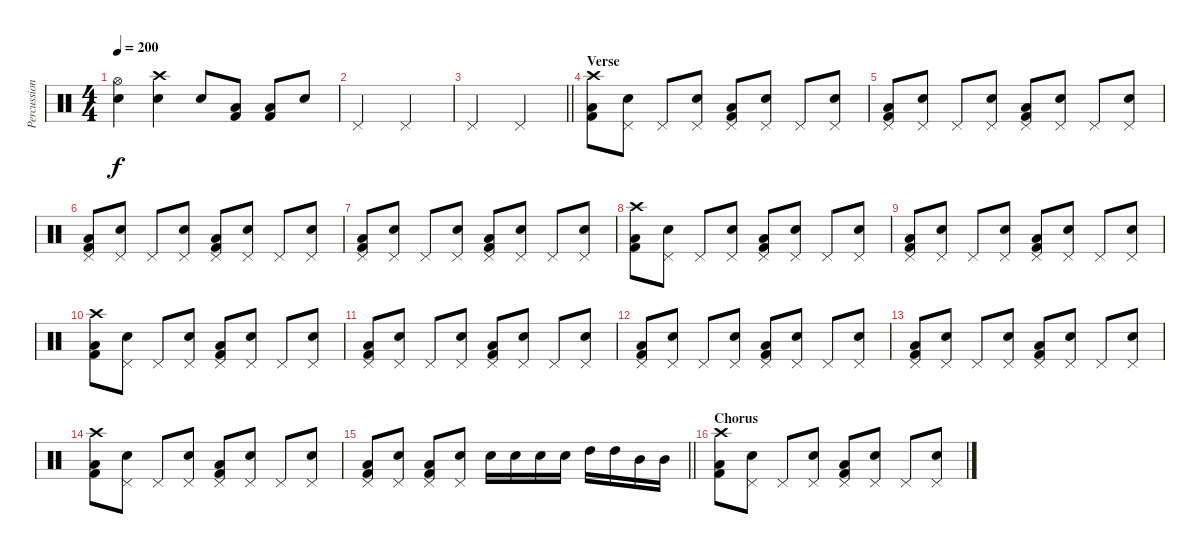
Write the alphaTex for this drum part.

\track ("Percussion" "Percussion") {instrument percussion}
\staff {score}
\articulation defaults
\ts (4 4)
\tempo 200
\clef neutral
\ks c
("Electric Snare (hit)" "Hi-Hat (open)").4{dy f} ("Electric Snare (hit)" "Crash high (hit)").4 "Electric Snare (hit)".8 ("Kick (hit) 2" "Low Floor Tom (hit)").8 ("Kick (hit) 2" "Low Floor Tom (hit)").8 "Electric Snare (hit)".8 |
"Pedal Hi-Hat (hit)".2 "Pedal Hi-Hat (hit)".2 |
\barLineRight lightlight "Pedal Hi-Hat (hit)".2 "Pedal Hi-Hat (hit)".2
|
\section ("" "Verse")
("Kick (hit) 2" "Low Floor Tom (hit)" "Crash high (hit)").8 ("Electric Snare (hit)" "Pedal Hi-Hat (hit)").8 "Pedal Hi-Hat (hit)".8 ("Electric Snare (hit)" "Pedal Hi-Hat (hit)").8 ("Kick (hit) 2" "Low Floor Tom (hit)" "Pedal Hi-Hat (hit)").8 ("Electric Snare (hit)" "Pedal Hi-Hat (hit)").8 "Pedal Hi-Hat (hit)".8 ("Electric Snare (hit)" "Pedal Hi-Hat (hit)").8 |
("Kick (hit) 2" "Low Floor Tom (hit)" "Pedal Hi-Hat (hit)").8 ("Electric Snare (hit)" "Pedal Hi-Hat (hit)").8 "Pedal Hi-Hat (hit)".8 ("Electric Snare (hit)" "Pedal Hi-Hat (hit)").8 ("Kick (hit) 2" "Low Floor Tom (hit)" "Pedal Hi-Hat (hit)").8 ("Electric Snare (hit)" "Pedal Hi-Hat (hit)").8 "Pedal Hi-Hat (hit)".8 ("Electric Snare (hit)" "Pedal Hi-Hat (hit)").8 |
("Kick (hit) 2" "Low Floor Tom (hit)" "Pedal Hi-Hat (hit)").8 ("Electric Snare (hit)" "Pedal Hi-Hat (hit)").8 "Pedal Hi-Hat (hit)".8 ("Electric Snare (hit)" "Pedal Hi-Hat (hit)").8 ("Kick (hit) 2" "Low Floor Tom (hit)" "Pedal Hi-Hat (hit)").8 ("Electric Snare (hit)" "Pedal Hi-Hat (hit)").8 "Pedal Hi-Hat (hit)".8 ("Electric Snare (hit)" "Pedal Hi-Hat (hit)").8 |
("Kick (hit) 2" "Low Floor Tom (hit)" "Pedal Hi-Hat (hit)").8 ("Electric Snare (hit)" "Pedal Hi-Hat (hit)").8 "Pedal Hi-Hat (hit)".8 ("Electric Snare (hit)" "Pedal Hi-Hat (hit)").8 ("Kick (hit) 2" "Low Floor Tom (hit)" "Pedal Hi-Hat (hit)").8 ("Electric Snare (hit)" "Pedal Hi-Hat (hit)").8 "Pedal Hi-Hat (hit)".8 ("Electric Snare (hit)" "Pedal Hi-Hat (hit)").8 |
("Kick (hit) 2" "Low Floor Tom (hit)" "Crash high (hit)").8 ("Electric Snare (hit)" "Pedal Hi-Hat (hit)").8 "Pedal Hi-Hat (hit)".8 ("Electric Snare (hit)" "Pedal Hi-Hat (hit)").8 ("Kick (hit) 2" "Low Floor Tom (hit)" "Pedal Hi-Hat (hit)").8 ("Electric Snare (hit)" "Pedal Hi-Hat (hit)").8 "Pedal Hi-Hat (hit)".8 ("Electric Snare (hit)" "Pedal Hi-Hat (hit)").8 |
("Kick (hit) 2" "Low Floor Tom (hit)" "Pedal Hi-Hat (hit)").8 ("Electric Snare (hit)" "Pedal Hi-Hat (hit)").8 "Pedal Hi-Hat (hit)".8 ("Electric Snare (hit)" "Pedal Hi-Hat (hit)").8 ("Kick (hit) 2" "Low Floor Tom (hit)" "Pedal Hi-Hat (hit)").8 ("Electric Snare (hit)" "Pedal Hi-Hat (hit)").8 "Pedal Hi-Hat (hit)".8 ("Electric Snare (hit)" "Pedal Hi-Hat (hit)").8 |
("Kick (hit) 2" "Low Floor Tom (hit)" "Crash high (hit)").8 ("Electric Snare (hit)" "Pedal Hi-Hat (hit)").8 "Pedal Hi-Hat (hit)".8 ("Electric Snare (hit)" "Pedal Hi-Hat (hit)").8 ("Kick (hit) 2" "Low Floor Tom (hit)" "Pedal Hi-Hat (hit)").8 ("Electric Snare (hit)" "Pedal Hi-Hat (hit)").8 "Pedal Hi-Hat (hit)".8 ("Electric Snare (hit)" "Pedal Hi-Hat (hit)").8 |
("Kick (hit) 2" "Low Floor Tom (hit)" "Pedal Hi-Hat (hit)").8 ("Electric Snare (hit)" "Pedal Hi-Hat (hit)").8 "Pedal Hi-Hat (hit)".8 ("Electric Snare (hit)" "Pedal Hi-Hat (hit)").8 ("Kick (hit) 2" "Low Floor Tom (hit)" "Pedal Hi-Hat (hit)").8 ("Electric Snare (hit)" "Pedal Hi-Hat (hit)").8 "Pedal Hi-Hat (hit)".8 ("Electric Snare (hit)" "Pedal Hi-Hat (hit)").8 |
("Kick (hit) 2" "Low Floor Tom (hit)" "Pedal Hi-Hat (hit)").8 ("Electric Snare (hit)" "Pedal Hi-Hat (hit)").8 "Pedal Hi-Hat (hit)".8 ("Electric Snare (hit)" "Pedal Hi-Hat (hit)").8 ("Kick (hit) 2" "Low Floor Tom (hit)" "Pedal Hi-Hat (hit)").8 ("Electric Snare (hit)" "Pedal Hi-Hat (hit)").8 "Pedal Hi-Hat (hit)".8 ("Electric Snare (hit)" "Pedal Hi-Hat (hit)").8 |
("Kick (hit) 2" "Low Floor Tom (hit)" "Pedal Hi-Hat (hit)").8 ("Electric Snare (hit)" "Pedal Hi-Hat (hit)").8 "Pedal Hi-Hat (hit)".8 ("Electric Snare (hit)" "Pedal Hi-Hat (hit)").8 ("Kick (hit) 2" "Low Floor Tom (hit)" "Pedal Hi-Hat (hit)").8 ("Electric Snare (hit)" "Pedal Hi-Hat (hit)").8 "Pedal Hi-Hat (hit)".8 ("Electric Snare (hit)" "Pedal Hi-Hat (hit)").8 |
("Kick (hit) 2" "Low Floor Tom (hit)" "Crash high (hit)").8 ("Electric Snare (hit)" "Pedal Hi-Hat (hit)").8 "Pedal Hi-Hat (hit)".8 ("Electric Snare (hit)" "Pedal Hi-Hat (hit)").8 ("Kick (hit) 2" "Low Floor Tom (hit)" "Pedal Hi-Hat (hit)").8 ("Electric Snare (hit)" "Pedal Hi-Hat (hit)").8 "Pedal Hi-Hat (hit)".8 ("Electric Snare (hit)" "Pedal Hi-Hat (hit)").8 |
\barLineRight lightlight
("Kick (hit) 2" "Low Floor Tom (hit)" "Pedal Hi-Hat (hit)").8 ("Electric Snare (hit)" "Pedal Hi-Hat (hit)").8 ("Kick (hit) 2" "Low Floor Tom (hit)" "Pedal Hi-Hat (hit)").8 ("Electric Snare (hit)" "Pedal Hi-Hat (hit)").8 "Electric Snare (hit)".16 "Electric Snare (hit)".16 "Electric Snare (hit)".16 "Electric Snare (hit)".16 "High Tom (hit)".16 "High Tom (hit)".16 "Mid Tom (hit)".16 "Mid Tom (hit)".16 |
\section ("" "Chorus")
("Kick (hit) 2" "Low Floor Tom (hit)" "Crash high (hit)").8 ("Electric Snare (hit)" "Pedal Hi-Hat (hit)").8 "Pedal Hi-Hat (hit)".8 ("Electric Snare (hit)" "Pedal Hi-Hat (hit)").8 ("Kick (hit) 2" "Low Floor Tom (hit)" "Pedal Hi-Hat (hit)").8 ("Electric Snare (hit)" "Pedal Hi-Hat (hit)").8 "Pedal Hi-Hat (hit)".8 ("Electric Snare (hit)" "Pedal Hi-Hat (hit)").8
